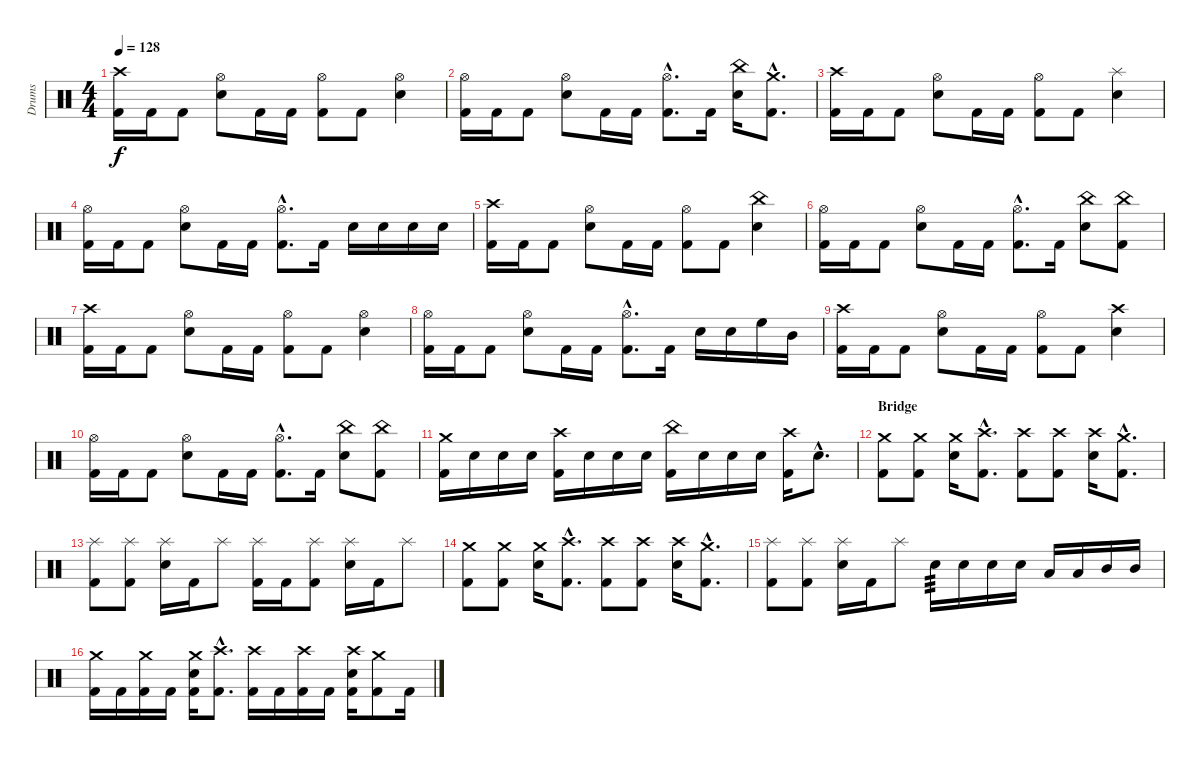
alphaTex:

\track ("Drums" "Drums") {instrument percussion}
\staff {score}
\articulation defaults
\ts (4 4)
\tempo 128
\clef neutral
\ks c
("Crash high (hit)" "Kick (hit) 2").16{dy f} "Kick (hit) 2".16 "Kick (hit) 2".8 ("Hi-Hat (open)" "Snare (hit) 2").8 "Kick (hit) 2".16 "Kick (hit) 2".16 ("Hi-Hat (open)" "Kick (hit) 2").8 "Kick (hit) 2".8 ("Hi-Hat (open)" "Snare (hit) 2").4 |
("Hi-Hat (open)" "Kick (hit) 2").16 "Kick (hit) 2".16 "Kick (hit) 2".8 ("Hi-Hat (open)" "Snare (hit) 2").8 "Kick (hit) 2".16 "Kick (hit) 2".16 ("Hi-Hat (open)"{hac} "Kick (hit) 2"{hac}).8{d} "Kick (hit) 2".16 ("China (hit)" "Snare (hit) 2").16 ("Crash medium (hit)"{hac} "Kick (hit) 2"{hac}).8{d} |
("Crash high (hit)" "Kick (hit) 2").16 "Kick (hit) 2".16 "Kick (hit) 2".8 ("Hi-Hat (open)" "Snare (hit) 2").8 "Kick (hit) 2".16 "Kick (hit) 2".16 ("Hi-Hat (open)" "Kick (hit) 2").8 "Kick (hit) 2".8 ("Splash (hit)" "Snare (hit) 2").4 |
("Hi-Hat (open)" "Kick (hit) 2").16 "Kick (hit) 2".16 "Kick (hit) 2".8 ("Hi-Hat (open)" "Snare (hit) 2").8 "Kick (hit) 2".16 "Kick (hit) 2".16 ("Hi-Hat (open)"{hac} "Kick (hit) 2"{hac}).8{d} "Kick (hit) 2".16 "Snare (hit) 2".16 "Snare (hit) 2".16 "Snare (hit) 2".16 "Snare (hit) 2".16 |
("Crash high (hit)" "Kick (hit) 2").16 "Kick (hit) 2".16 "Kick (hit) 2".8 ("Hi-Hat (open)" "Snare (hit) 2").8 "Kick (hit) 2".16 "Kick (hit) 2".16 ("Hi-Hat (open)" "Kick (hit) 2").8 "Kick (hit) 2".8 ("China (hit)" "Snare (hit) 2").4 |
("Hi-Hat (open)" "Kick (hit) 2").16 "Kick (hit) 2".16 "Kick (hit) 2".8 ("Hi-Hat (open)" "Snare (hit) 2").8 "Kick (hit) 2".16 "Kick (hit) 2".16 ("Hi-Hat (open)"{hac} "Kick (hit) 2"{hac}).8{d} "Kick (hit) 2".16 ("China (hit)" "Snare (hit) 2").8 ("China (hit)" "Kick (hit) 2").8 |
("Crash high (hit)" "Kick (hit) 2").16 "Kick (hit) 2".16 "Kick (hit) 2".8 ("Hi-Hat (open)" "Snare (hit) 2").8 "Kick (hit) 2".16 "Kick (hit) 2".16 ("Hi-Hat (open)" "Kick (hit) 2").8 "Kick (hit) 2".8 ("Hi-Hat (open)" "Snare (hit) 2").4 |
("Hi-Hat (open)" "Kick (hit) 2").16 "Kick (hit) 2".16 "Kick (hit) 2".8 ("Hi-Hat (open)" "Snare (hit) 2").8 "Kick (hit) 2".16 "Kick (hit) 2".16 ("Hi-Hat (open)"{hac} "Kick (hit) 2"{hac}).8{d} "Kick (hit) 2".16 "Snare (hit) 2".16 "Snare (hit) 2".16 "High Floor Tom (hit)".16 "Mid Tom (hit)".16 |
("Crash high (hit)" "Kick (hit) 2").16 "Kick (hit) 2".16 "Kick (hit) 2".8 ("Hi-Hat (open)" "Snare (hit) 2").8 "Kick (hit) 2".16 "Kick (hit) 2".16 ("Hi-Hat (open)" "Kick (hit) 2").8 "Kick (hit) 2".8 ("Crash high (hit)" "Snare (hit) 2").4 |
("Hi-Hat (open)" "Kick (hit) 2").16 "Kick (hit) 2".16 "Kick (hit) 2".8 ("Hi-Hat (open)" "Snare (hit) 2").8 "Kick (hit) 2".16 "Kick (hit) 2".16 ("Hi-Hat (open)"{hac} "Kick (hit) 2"{hac}).8{d} "Kick (hit) 2".16 ("China (hit)" "Snare (hit) 2").8 ("China (hit)" "Kick (hit) 2").8 |
("Crash medium (hit)" "Kick (hit) 2").16 "Snare (hit) 2".16 "Snare (hit) 2".16 "Snare (hit) 2".16 ("Crash high (hit)" "Kick (hit) 2").16 "Snare (hit) 2".16 "Snare (hit) 2".16 "Snare (hit) 2".16 ("China (hit)" "Kick (hit) 2").16 "Snare (hit) 2".16 "Snare (hit) 2".16 "Snare (hit) 2".16 ("Crash high (hit)" "Kick (hit) 2").16 "Snare (hit) 2"{hac}.8{d} |
\section ("" "Bridge")
("Crash medium (hit)" "Kick (hit) 2").8 ("Crash medium (hit)" "Kick (hit) 2").8 ("Crash medium (hit)" "Snare (hit) 2").16 ("Crash high (hit)"{hac} "Kick (hit) 2"{hac}).8{d} ("Crash high (hit)" "Kick (hit) 2").8 ("Crash high (hit)" "Kick (hit) 2").8 ("Crash high (hit)" "Snare (hit) 2").16 ("Crash medium (hit)"{hac} "Kick (hit) 2"{hac}).8{d} |
("Splash (hit)" "Kick (hit) 2").8 ("Splash (hit)" "Kick (hit) 2").8 ("Splash (hit)" "Snare (hit) 2").16 "Kick (hit) 2".16 "Splash (hit)".8 ("Splash (hit)" "Kick (hit) 2").16 "Kick (hit) 2".16 ("Splash (hit)" "Kick (hit) 2").8 ("Splash (hit)" "Snare (hit) 2").16 "Kick (hit) 2".16 "Splash (hit)".8 |
("Crash medium (hit)" "Kick (hit) 2").8 ("Crash medium (hit)" "Kick (hit) 2").8 ("Crash medium (hit)" "Snare (hit) 2").16 ("Crash high (hit)"{hac} "Kick (hit) 2"{hac}).8{d} ("Crash high (hit)" "Kick (hit) 2").8 ("Crash high (hit)" "Kick (hit) 2").8 ("Crash high (hit)" "Snare (hit) 2").16 ("Crash medium (hit)"{hac} "Kick (hit) 2"{hac}).8{d} |
("Splash (hit)" "Kick (hit) 2").8 ("Splash (hit)" "Kick (hit) 2").8 ("Splash (hit)" "Snare (hit) 2").16 "Kick (hit) 2".16 "Splash (hit)".8 "Snare (hit) 2".16{tp 3} "Snare (hit) 2".16 "Snare (hit) 2".16 "Snare (hit) 2".16 "Low Tom (hit)".16 "Low Tom (hit)".16 "Mid Tom (hit)".16 "Mid Tom (hit)".16 |
("Crash medium (hit)" "Kick (hit) 2").16 "Kick (hit) 2".16 ("Crash medium (hit)" "Kick (hit) 2").16 "Kick (hit) 2".16 ("Crash medium (hit)" "Snare (hit) 2" "Kick (hit) 2").16 ("Crash high (hit)"{hac} "Kick (hit) 2"{hac}).8{d} ("Crash high (hit)" "Kick (hit) 2").16 "Kick (hit) 2".16 ("Crash high (hit)" "Kick (hit) 2").16 "Kick (hit) 2".16 ("Crash high (hit)" "Snare (hit) 2" "Kick (hit) 2").16 ("Crash medium (hit)" "Kick (hit) 2").8 "Kick (hit) 2".16
